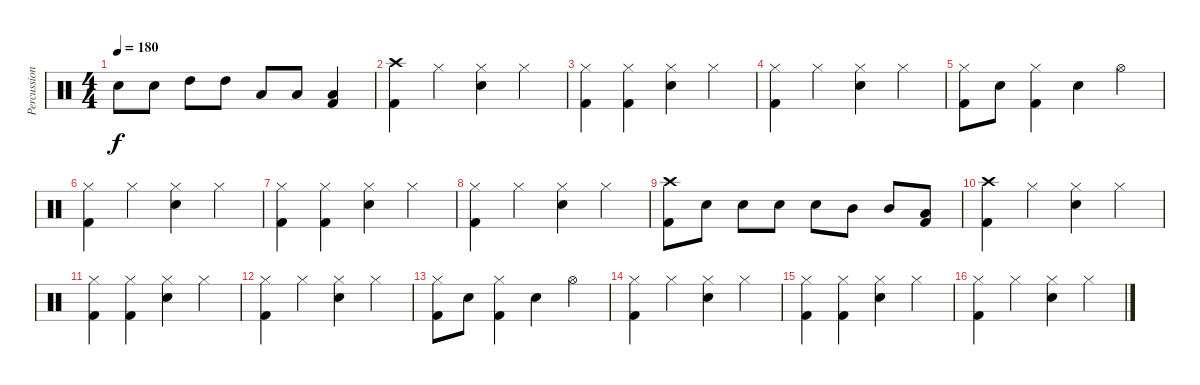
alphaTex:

\track ("Percussion" "Percussion") {instrument percussion}
\staff {score}
\articulation defaults
\ts (4 4)
\tempo 180
\clef neutral
\ks c "Snare (hit) 2".8{dy f} "Snare (hit) 2".8 "High Tom (hit)".8 "High Tom (hit)".8 "Low Tom (hit)".8 "Low Tom (hit)".8
("Kick (hit) 2" "Low Floor Tom (hit)").4 |
("Crash high (hit)" "Kick (hit) 2").4 "Hi-Hat (closed)".4 ("Hi-Hat (closed)" "Snare (hit) 2").4 "Hi-Hat (closed)".4 |
("Hi-Hat (closed)" "Kick (hit) 2").4 ("Hi-Hat (closed)" "Kick (hit) 2").4 ("Hi-Hat (closed)" "Snare (hit) 2").4 "Hi-Hat (closed)".4 |
("Hi-Hat (closed)" "Kick (hit) 2").4 "Hi-Hat (closed)".4 ("Hi-Hat (closed)" "Snare (hit) 2").4 "Hi-Hat (closed)".4 |
("Hi-Hat (closed)" "Kick (hit) 2").8 "Snare (hit) 2".8 ("Hi-Hat (closed)" "Kick (hit) 2").4 "Snare (hit) 2".4 "Hi-Hat (open)".4 |
("Hi-Hat (closed)" "Kick (hit) 2").4 "Hi-Hat (closed)".4 ("Hi-Hat (closed)" "Snare (hit) 2").4 "Hi-Hat (closed)".4 |
("Hi-Hat (closed)" "Kick (hit) 2").4 ("Hi-Hat (closed)" "Kick (hit) 2").4 ("Hi-Hat (closed)" "Snare (hit) 2").4 "Hi-Hat (closed)".4 |
("Hi-Hat (closed)" "Kick (hit) 2").4 "Hi-Hat (closed)".4 ("Hi-Hat (closed)" "Snare (hit) 2").4 "Hi-Hat (closed)".4 |
("Crash high (hit)" "Kick (hit) 2").8 "Snare (hit) 2".8 "Snare (hit) 2".8 "Snare (hit) 2".8 "Snare (hit) 2".8 "Mid Tom (hit)".8 "Mid Tom (hit)".8 ("Kick (hit) 2" "Low Tom (hit)").8 |
("Crash high (hit)" "Kick (hit) 2").4 "Hi-Hat (closed)".4 ("Hi-Hat (closed)" "Snare (hit) 2").4 "Hi-Hat (closed)".4 |
("Hi-Hat (closed)" "Kick (hit) 2").4 ("Hi-Hat (closed)" "Kick (hit) 2").4 ("Hi-Hat (closed)" "Snare (hit) 2").4 "Hi-Hat (closed)".4 |
("Hi-Hat (closed)" "Kick (hit) 2").4 "Hi-Hat (closed)".4 ("Hi-Hat (closed)" "Snare (hit) 2").4 "Hi-Hat (closed)".4 |
("Hi-Hat (closed)" "Kick (hit) 2").8 "Snare (hit) 2".8 ("Hi-Hat (closed)" "Kick (hit) 2").4 "Snare (hit) 2".4 "Hi-Hat (open)".4 |
("Hi-Hat (closed)" "Kick (hit) 2").4 "Hi-Hat (closed)".4 ("Hi-Hat (closed)" "Snare (hit) 2").4 "Hi-Hat (closed)".4 |
("Hi-Hat (closed)" "Kick (hit) 2").4 ("Hi-Hat (closed)" "Kick (hit) 2").4 ("Hi-Hat (closed)" "Snare (hit) 2").4 "Hi-Hat (closed)".4 |
("Hi-Hat (closed)" "Kick (hit) 2").4 "Hi-Hat (closed)".4 ("Hi-Hat (closed)" "Snare (hit) 2").4 "Hi-Hat (closed)".4
